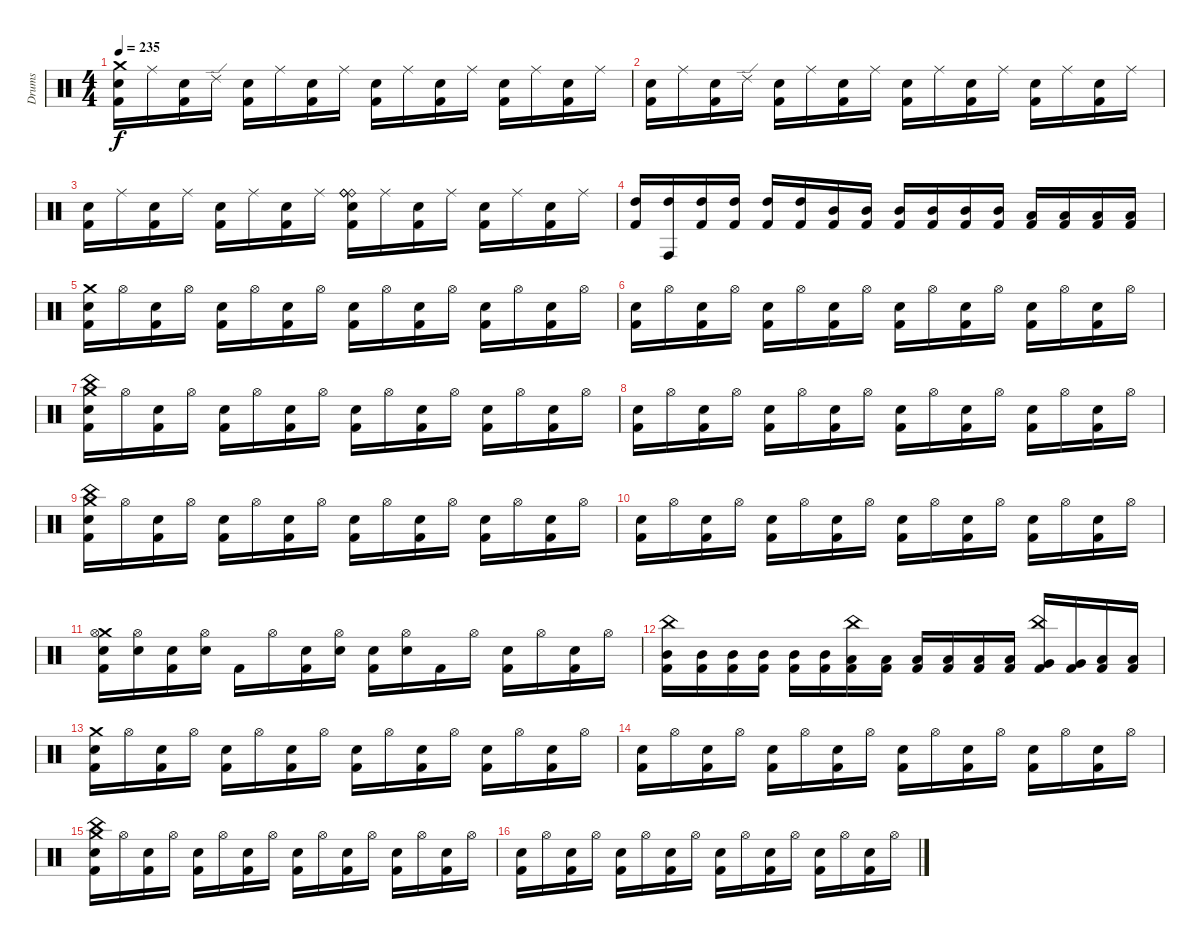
\track ("Drums" "Drums") {instrument percussion}
\staff {score}
\articulation defaults
\ts (4 4)
\tempo 235
\clef neutral
\ks c
("Crash medium (hit)" "Electric Snare (hit)" "Kick (hit) 2").16{dy f} "Ride (middle)".16 ("Electric Snare (hit)" "Kick (hit) 2").16 "Ride (edge) 2".16 ("Electric Snare (hit)" "Kick (hit) 2").16 "Ride (middle)".16 ("Electric Snare (hit)" "Kick (hit) 2").16 "Ride (middle)".16 ("Electric Snare (hit)" "Kick (hit) 2").16 "Ride (middle)".16 ("Electric Snare (hit)" "Kick (hit) 2").16 "Ride (middle)".16 ("Electric Snare (hit)" "Kick (hit) 2").16 "Ride (middle)".16 ("Electric Snare (hit)" "Kick (hit) 2").16 "Ride (middle)".16 |
("Electric Snare (hit)" "Kick (hit) 2").16 "Ride (middle)".16 ("Electric Snare (hit)" "Kick (hit) 2").16 "Ride (edge) 2".16 ("Electric Snare (hit)" "Kick (hit) 2").16 "Ride (middle)".16 ("Electric Snare (hit)" "Kick (hit) 2").16 "Ride (middle)".16 ("Electric Snare (hit)" "Kick (hit) 2").16 "Ride (middle)".16 ("Electric Snare (hit)" "Kick (hit) 2").16 "Ride (middle)".16 ("Electric Snare (hit)" "Kick (hit) 2").16 "Ride (middle)".16 ("Electric Snare (hit)" "Kick (hit) 2").16 "Ride (middle)".16 |
("Electric Snare (hit)" "Kick (hit) 2").16 "Ride (middle)".16 ("Electric Snare (hit)" "Kick (hit) 2").16 "Ride (middle)".16 ("Electric Snare (hit)" "Kick (hit) 2").16 "Ride (middle)".16 ("Electric Snare (hit)" "Kick (hit) 2").16 "Ride (middle)".16 ("Ride (bell)" "Ride (bell)" "Ride (bell)" "Electric Snare (hit)" "Kick (hit) 2").16 "Ride (middle)".16 ("Electric Snare (hit)" "Kick (hit) 2").16 "Ride (middle)".16 ("Electric Snare (hit)" "Kick (hit) 2").16 "Ride (middle)".16 ("Electric Snare (hit)" "Kick (hit) 2").16 "Ride (middle)".16 |
("High Tom (hit)" "Kick (hit) 2").16 ("High Tom (hit)" "Conga high (hit)").16 ("High Tom (hit)" "Kick (hit) 2").16 ("High Tom (hit)" "Kick (hit) 2").16 ("High Tom (hit)" "Kick (hit) 2").16 ("High Tom (hit)" "Kick (hit) 2").16 ("Mid Tom (hit)" "Kick (hit) 2").16 ("Mid Tom (hit)" "Kick (hit) 2").16 ("Mid Tom (hit)" "Kick (hit) 2").16 ("Mid Tom (hit)" "Kick (hit) 2").16 ("Mid Tom (hit)" "Kick (hit) 2").16 ("Mid Tom (hit)" "Kick (hit) 2").16 ("Low Tom (hit)" "Kick (hit) 2").16 ("Low Tom (hit)" "Kick (hit) 2").16 ("Low Tom (hit)" "Kick (hit) 2").16 ("Low Tom (hit)" "Kick (hit) 2").16 |
("Crash medium (hit)" "Electric Snare (hit)" "Kick (hit) 2").16 "Hi-Hat (open)".16 ("Electric Snare (hit)" "Kick (hit) 2").16 "Hi-Hat (open)".16 ("Electric Snare (hit)" "Kick (hit) 2").16 "Hi-Hat (open)".16 ("Electric Snare (hit)" "Kick (hit) 2").16 "Hi-Hat (open)".16 ("Electric Snare (hit)" "Kick (hit) 2").16 "Hi-Hat (open)".16 ("Electric Snare (hit)" "Kick (hit) 2").16 "Hi-Hat (open)".16 ("Electric Snare (hit)" "Kick (hit) 2").16 "Hi-Hat (open)".16 ("Electric Snare (hit)" "Kick (hit) 2").16 "Hi-Hat (open)".16 |
("Electric Snare (hit)" "Kick (hit) 2").16 "Hi-Hat (open)".16 ("Electric Snare (hit)" "Kick (hit) 2").16 "Hi-Hat (open)".16 ("Electric Snare (hit)" "Kick (hit) 2").16 "Hi-Hat (open)".16 ("Electric Snare (hit)" "Kick (hit) 2").16 "Hi-Hat (open)".16 ("Electric Snare (hit)" "Kick (hit) 2").16 "Hi-Hat (open)".16 ("Electric Snare (hit)" "Kick (hit) 2").16 "Hi-Hat (open)".16 ("Electric Snare (hit)" "Kick (hit) 2").16 "Hi-Hat (open)".16 ("Electric Snare (hit)" "Kick (hit) 2").16 "Hi-Hat (open)".16 |
("China (hit)" "Crash medium (hit)" "Electric Snare (hit)" "Kick (hit) 2").16 "Hi-Hat (open)".16 ("Electric Snare (hit)" "Kick (hit) 2").16 "Hi-Hat (open)".16 ("Electric Snare (hit)" "Kick (hit) 2").16 "Hi-Hat (open)".16 ("Electric Snare (hit)" "Kick (hit) 2").16 "Hi-Hat (open)".16 ("Electric Snare (hit)" "Kick (hit) 2").16 "Hi-Hat (open)".16 ("Electric Snare (hit)" "Kick (hit) 2").16 "Hi-Hat (open)".16 ("Electric Snare (hit)" "Kick (hit) 2").16 "Hi-Hat (open)".16 ("Electric Snare (hit)" "Kick (hit) 2").16 "Hi-Hat (open)".16 |
("Electric Snare (hit)" "Kick (hit) 2").16 "Hi-Hat (open)".16 ("Electric Snare (hit)" "Kick (hit) 2").16 "Hi-Hat (open)".16 ("Electric Snare (hit)" "Kick (hit) 2").16 "Hi-Hat (open)".16 ("Electric Snare (hit)" "Kick (hit) 2").16 "Hi-Hat (open)".16 ("Electric Snare (hit)" "Kick (hit) 2").16 "Hi-Hat (open)".16 ("Electric Snare (hit)" "Kick (hit) 2").16 "Hi-Hat (open)".16 ("Electric Snare (hit)" "Kick (hit) 2").16 "Hi-Hat (open)".16 ("Electric Snare (hit)" "Kick (hit) 2").16 "Hi-Hat (open)".16 |
("China (hit)" "Crash medium (hit)" "Electric Snare (hit)" "Kick (hit) 2").16 "Hi-Hat (open)".16 ("Electric Snare (hit)" "Kick (hit) 2").16 "Hi-Hat (open)".16 ("Electric Snare (hit)" "Kick (hit) 2").16 "Hi-Hat (open)".16 ("Electric Snare (hit)" "Kick (hit) 2").16 "Hi-Hat (open)".16 ("Electric Snare (hit)" "Kick (hit) 2").16 "Hi-Hat (open)".16 ("Electric Snare (hit)" "Kick (hit) 2").16 "Hi-Hat (open)".16 ("Electric Snare (hit)" "Kick (hit) 2").16 "Hi-Hat (open)".16 ("Electric Snare (hit)" "Kick (hit) 2").16 "Hi-Hat (open)".16 |
("Electric Snare (hit)" "Kick (hit) 2").16 "Hi-Hat (open)".16 ("Electric Snare (hit)" "Kick (hit) 2").16 "Hi-Hat (open)".16 ("Electric Snare (hit)" "Kick (hit) 2").16 "Hi-Hat (open)".16 ("Electric Snare (hit)" "Kick (hit) 2").16 "Hi-Hat (open)".16 ("Electric Snare (hit)" "Kick (hit) 2").16 "Hi-Hat (open)".16 ("Electric Snare (hit)" "Kick (hit) 2").16 "Hi-Hat (open)".16 ("Electric Snare (hit)" "Kick (hit) 2").16 "Hi-Hat (open)".16 ("Electric Snare (hit)" "Kick (hit) 2").16 "Hi-Hat (open)".16 |
("Crash medium (hit)" "Electric Snare (hit)" "Hi-Hat (open)" "Kick (hit) 2").16 ("Electric Snare (hit)" "Hi-Hat (open)").16 ("Electric Snare (hit)" "Kick (hit) 2").16 ("Electric Snare (hit)" "Hi-Hat (open)").16 "Kick (hit) 2".16 "Hi-Hat (open)".16 ("Electric Snare (hit)" "Kick (hit) 2").16 ("Electric Snare (hit)" "Hi-Hat (open)").16 ("Electric Snare (hit)" "Kick (hit) 2").16 ("Electric Snare (hit)" "Hi-Hat (open)").16 "Kick (hit) 2".16 "Hi-Hat (open)".16 ("Electric Snare (hit)" "Kick (hit) 2").16 "Hi-Hat (open)".16 ("Electric Snare (hit)" "Kick (hit) 2").16 "Hi-Hat (open)".16 |
("China (hit)" "Mid Tom (hit)" "Kick (hit) 2").16 ("Mid Tom (hit)" "Kick (hit) 2").16 ("Mid Tom (hit)" "Kick (hit) 2").16 ("Mid Tom (hit)" "Kick (hit) 2").16 ("Mid Tom (hit)" "Kick (hit) 2").16 ("Mid Tom (hit)" "Kick (hit) 2").16 ("China (hit)" "Low Tom (hit)" "Kick (hit) 2").16 ("Low Tom (hit)" "Kick (hit) 2").16 ("Low Tom (hit)" "Kick (hit) 2").16 ("Low Tom (hit)" "Kick (hit) 2").16 ("Low Tom (hit)" "Kick (hit) 2").16 ("Low Tom (hit)" "Kick (hit) 2").16 ("China (hit)" "Very Low Tom (hit)" "Kick (hit) 2").16 ("Very Low Tom (hit)" "Kick (hit) 2").16 ("Low Floor Tom (hit)" "Kick (hit) 2").16 ("Low Floor Tom (hit)" "Kick (hit) 2").16 |
("Crash medium (hit)" "Electric Snare (hit)" "Kick (hit) 2").16 "Hi-Hat (open)".16 ("Electric Snare (hit)" "Kick (hit) 2").16 "Hi-Hat (open)".16 ("Electric Snare (hit)" "Kick (hit) 2").16 "Hi-Hat (open)".16 ("Electric Snare (hit)" "Kick (hit) 2").16 "Hi-Hat (open)".16 ("Electric Snare (hit)" "Kick (hit) 2").16 "Hi-Hat (open)".16 ("Electric Snare (hit)" "Kick (hit) 2").16 "Hi-Hat (open)".16 ("Electric Snare (hit)" "Kick (hit) 2").16 "Hi-Hat (open)".16 ("Electric Snare (hit)" "Kick (hit) 2").16 "Hi-Hat (open)".16 |
("Electric Snare (hit)" "Kick (hit) 2").16 "Hi-Hat (open)".16 ("Electric Snare (hit)" "Kick (hit) 2").16 "Hi-Hat (open)".16 ("Electric Snare (hit)" "Kick (hit) 2").16 "Hi-Hat (open)".16 ("Electric Snare (hit)" "Kick (hit) 2").16 "Hi-Hat (open)".16 ("Electric Snare (hit)" "Kick (hit) 2").16 "Hi-Hat (open)".16 ("Electric Snare (hit)" "Kick (hit) 2").16 "Hi-Hat (open)".16 ("Electric Snare (hit)" "Kick (hit) 2").16 "Hi-Hat (open)".16 ("Electric Snare (hit)" "Kick (hit) 2").16 "Hi-Hat (open)".16 |
("China (hit)" "Crash medium (hit)" "Electric Snare (hit)" "Kick (hit) 2").16 "Hi-Hat (open)".16 ("Electric Snare (hit)" "Kick (hit) 2").16 "Hi-Hat (open)".16 ("Electric Snare (hit)" "Kick (hit) 2").16 "Hi-Hat (open)".16 ("Electric Snare (hit)" "Kick (hit) 2").16 "Hi-Hat (open)".16 ("Electric Snare (hit)" "Kick (hit) 2").16 "Hi-Hat (open)".16 ("Electric Snare (hit)" "Kick (hit) 2").16 "Hi-Hat (open)".16 ("Electric Snare (hit)" "Kick (hit) 2").16 "Hi-Hat (open)".16 ("Electric Snare (hit)" "Kick (hit) 2").16 "Hi-Hat (open)".16 |
("Electric Snare (hit)" "Kick (hit) 2").16 "Hi-Hat (open)".16 ("Electric Snare (hit)" "Kick (hit) 2").16 "Hi-Hat (open)".16 ("Electric Snare (hit)" "Kick (hit) 2").16 "Hi-Hat (open)".16 ("Electric Snare (hit)" "Kick (hit) 2").16 "Hi-Hat (open)".16 ("Electric Snare (hit)" "Kick (hit) 2").16 "Hi-Hat (open)".16 ("Electric Snare (hit)" "Kick (hit) 2").16 "Hi-Hat (open)".16 ("Electric Snare (hit)" "Kick (hit) 2").16 "Hi-Hat (open)".16 ("Electric Snare (hit)" "Kick (hit) 2").16 "Hi-Hat (open)".16
